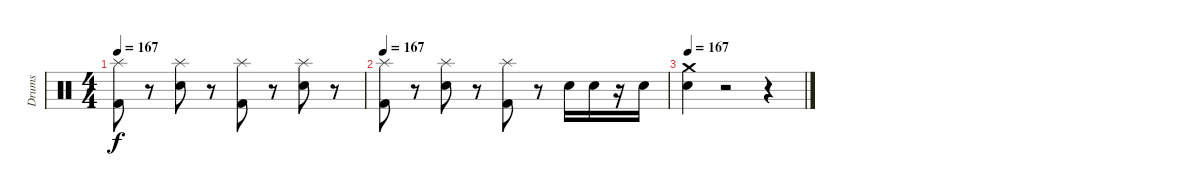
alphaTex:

\track ("Drums" "Drums") {instrument percussion}
\staff {score}
\articulation defaults
\ts (4 4)
\tempo 167
\clef neutral
\ks c
("Splash (hit)" "Kick (hit) 2").8{dy f} r.8 ("Electric Snare (hit)" "Splash (hit)").8 r.8 ("Splash (hit)" "Kick (hit) 2").8 r.8 ("Electric Snare (hit)" "Splash (hit)").8 r.8 |
\tempo 167
("Kick (hit) 2" "Splash (hit)").8 r.8 ("Electric Snare (hit)" "Splash (hit)").8 r.8 ("Kick (hit) 2" "Splash (hit)").8 r.8 "Electric Snare (hit)".16 "Electric Snare (hit)".16 r.16 "Electric Snare (hit)".16 |
\tempo 167
("Crash medium (hit)" "Electric Snare (hit)").4 r.2 r.4
